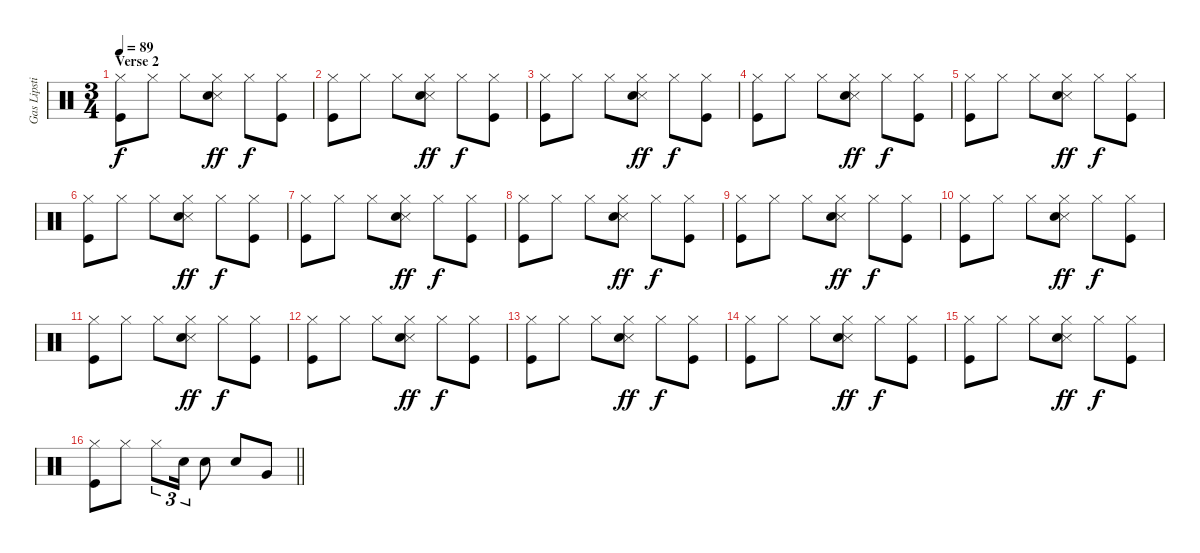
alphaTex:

\track ("Gas Lipstick (Drums)" "Gas Lipsti") {instrument percussion}
\staff {score}
\articulation defaults
\ts (3 4)
\section ("" "Verse 2")
\tempo 89
\clef neutral
\ks c
("Hi-Hat (closed)" "Kick (hit)").8{dy f} "Hi-Hat (closed)".8 "Hi-Hat (closed)".8 ("Snare (side stick) 3" "Hi-Hat (closed)" "Snare (hit) 2").8{dy ff} "Hi-Hat (closed)".8{dy f} ("Hi-Hat (closed)" "Kick (hit)").8 |
("Hi-Hat (closed)" "Kick (hit)").8 "Hi-Hat (closed)".8 "Hi-Hat (closed)".8 ("Snare (side stick) 3" "Hi-Hat (closed)" "Snare (hit) 2").8{dy ff} "Hi-Hat (closed)".8{dy f} ("Hi-Hat (closed)" "Kick (hit)").8 |
("Hi-Hat (closed)" "Kick (hit)").8 "Hi-Hat (closed)".8 "Hi-Hat (closed)".8 ("Snare (side stick) 3" "Hi-Hat (closed)" "Snare (hit) 2").8{dy ff} "Hi-Hat (closed)".8{dy f} ("Hi-Hat (closed)" "Kick (hit)").8 |
("Hi-Hat (closed)" "Kick (hit)").8 "Hi-Hat (closed)".8 "Hi-Hat (closed)".8 ("Snare (side stick) 3" "Hi-Hat (closed)" "Snare (hit) 2").8{dy ff} "Hi-Hat (closed)".8{dy f} ("Hi-Hat (closed)" "Kick (hit)").8 |
("Hi-Hat (closed)" "Kick (hit)").8 "Hi-Hat (closed)".8 "Hi-Hat (closed)".8 ("Snare (side stick) 3" "Hi-Hat (closed)" "Snare (hit) 2").8{dy ff} "Hi-Hat (closed)".8{dy f} ("Hi-Hat (closed)" "Kick (hit)").8 |
("Hi-Hat (closed)" "Kick (hit)").8 "Hi-Hat (closed)".8 "Hi-Hat (closed)".8 ("Snare (side stick) 3" "Hi-Hat (closed)" "Snare (hit) 2").8{dy ff} "Hi-Hat (closed)".8{dy f} ("Hi-Hat (closed)" "Kick (hit)").8 |
("Hi-Hat (closed)" "Kick (hit)").8 "Hi-Hat (closed)".8 "Hi-Hat (closed)".8 ("Snare (side stick) 3" "Hi-Hat (closed)" "Snare (hit) 2").8{dy ff} "Hi-Hat (closed)".8{dy f} ("Hi-Hat (closed)" "Kick (hit)").8 |
("Hi-Hat (closed)" "Kick (hit)").8 "Hi-Hat (closed)".8 "Hi-Hat (closed)".8 ("Snare (side stick) 3" "Hi-Hat (closed)" "Snare (hit) 2").8{dy ff} "Hi-Hat (closed)".8{dy f} ("Hi-Hat (closed)" "Kick (hit)").8 |
("Hi-Hat (closed)" "Kick (hit)").8 "Hi-Hat (closed)".8 "Hi-Hat (closed)".8 ("Snare (side stick) 3" "Hi-Hat (closed)" "Snare (hit) 2").8{dy ff} "Hi-Hat (closed)".8{dy f} ("Hi-Hat (closed)" "Kick (hit)").8 |
("Hi-Hat (closed)" "Kick (hit)").8 "Hi-Hat (closed)".8 "Hi-Hat (closed)".8 ("Snare (side stick) 3" "Hi-Hat (closed)" "Snare (hit) 2").8{dy ff} "Hi-Hat (closed)".8{dy f} ("Hi-Hat (closed)" "Kick (hit)").8 |
("Hi-Hat (closed)" "Kick (hit)").8 "Hi-Hat (closed)".8 "Hi-Hat (closed)".8 ("Snare (side stick) 3" "Hi-Hat (closed)" "Snare (hit) 2").8{dy ff} "Hi-Hat (closed)".8{dy f} ("Hi-Hat (closed)" "Kick (hit)").8 |
("Hi-Hat (closed)" "Kick (hit)").8 "Hi-Hat (closed)".8 "Hi-Hat (closed)".8 ("Snare (side stick) 3" "Hi-Hat (closed)" "Snare (hit) 2").8{dy ff} "Hi-Hat (closed)".8{dy f} ("Hi-Hat (closed)" "Kick (hit)").8 |
("Hi-Hat (closed)" "Kick (hit)").8 "Hi-Hat (closed)".8 "Hi-Hat (closed)".8 ("Snare (side stick) 3" "Hi-Hat (closed)" "Snare (hit) 2").8{dy ff} "Hi-Hat (closed)".8{dy f} ("Hi-Hat (closed)" "Kick (hit)").8 |
("Hi-Hat (closed)" "Kick (hit)").8 "Hi-Hat (closed)".8 "Hi-Hat (closed)".8 ("Snare (side stick) 3" "Hi-Hat (closed)" "Snare (hit) 2").8{dy ff} "Hi-Hat (closed)".8{dy f} ("Hi-Hat (closed)" "Kick (hit)").8 |
("Hi-Hat (closed)" "Kick (hit)").8 "Hi-Hat (closed)".8 "Hi-Hat (closed)".8 ("Snare (side stick) 3" "Hi-Hat (closed)" "Snare (hit) 2").8{dy ff} "Hi-Hat (closed)".8{dy f} ("Hi-Hat (closed)" "Kick (hit)").8 |
\barLineRight lightlight
("Hi-Hat (closed)" "Kick (hit)").8 "Hi-Hat (closed)".8 "Hi-Hat (closed)".8{tu (3 2)} "Snare (hit) 2".16{tu (3 2)} "Snare (hit) 2".8 "Snare (hit) 2".8 "Very Low Tom (hit)".8
